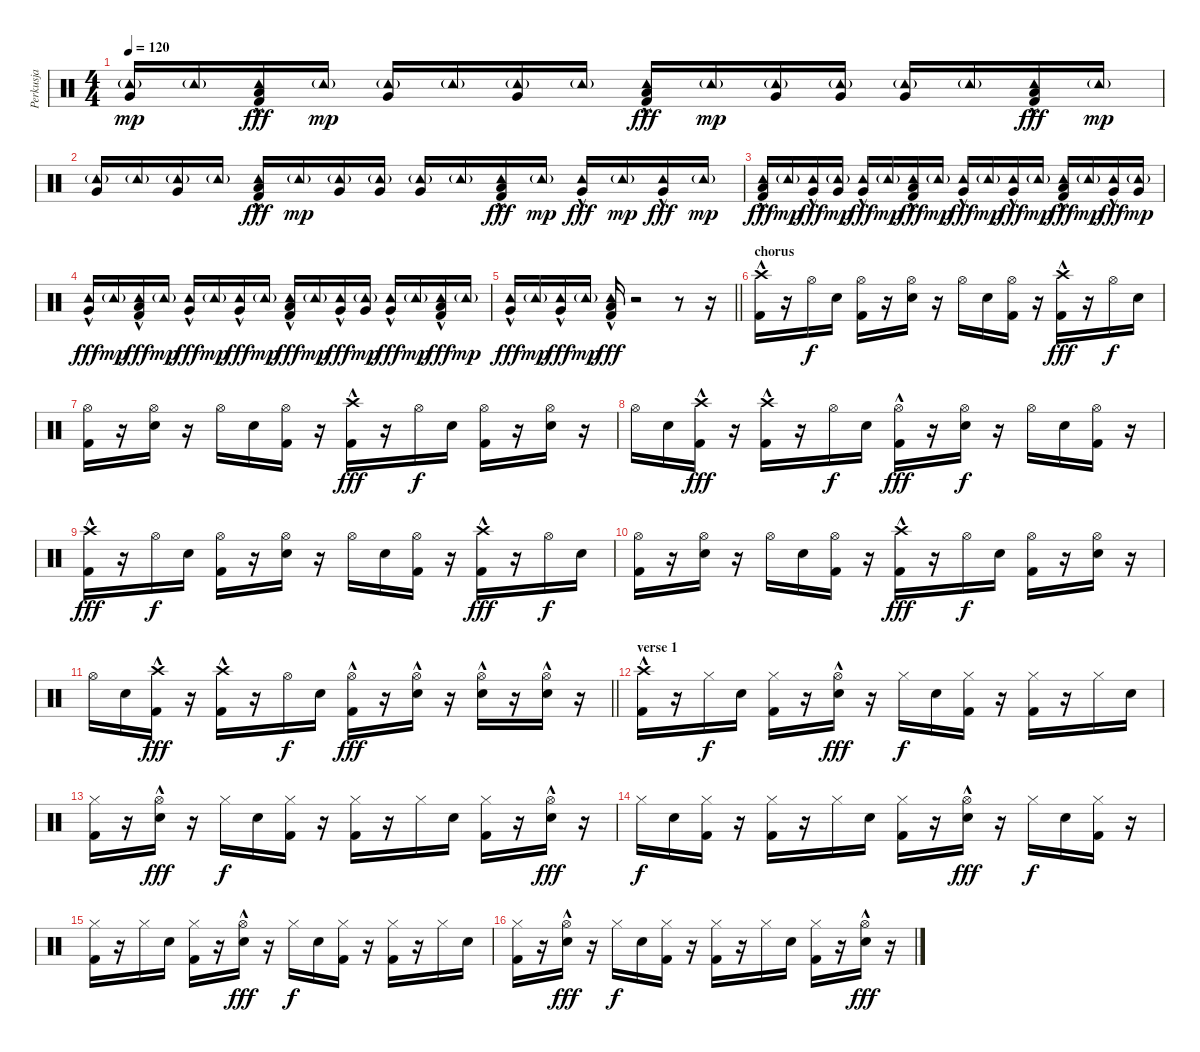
\track ("Perkusja" "Perkusja") {instrument percussion}
\staff {score}
\articulation defaults
\ts (4 4)
\tempo 120
\clef neutral
\ks c
("Tambourine (hit)"{g} "Very Low Tom (hit)").16{dy mp} "Tambourine (hit)"{g}.16 ("Tambourine (hit)"{hac} "Low Tom (hit)" "Kick (hit) 2").16{dy fff} "Tambourine (hit)"{g}.16{dy mp} ("Tambourine (hit)"{g} "Very Low Tom (hit)").16 "Tambourine (hit)"{g}.16 ("Tambourine (hit)"{g} "Very Low Tom (hit)").16 "Tambourine (hit)"{g}.16 ("Tambourine (hit)"{hac} "Low Tom (hit)" "Kick (hit) 2").16{dy fff} "Tambourine (hit)"{g}.16{dy mp} ("Tambourine (hit)"{g} "Very Low Tom (hit)").16 ("Tambourine (hit)"{g} "Very Low Tom (hit)").16 ("Tambourine (hit)"{g} "Very Low Tom (hit)").16 "Tambourine (hit)"{g}.16 ("Tambourine (hit)"{hac} "Low Tom (hit)" "Kick (hit) 2").16{dy fff} "Tambourine (hit)"{g}.16{dy mp} |
("Tambourine (hit)"{g} "Very Low Tom (hit)").16 "Tambourine (hit)"{g}.16 ("Tambourine (hit)"{g} "Very Low Tom (hit)").16 "Tambourine (hit)"{g}.16 ("Tambourine (hit)"{hac} "Low Tom (hit)" "Kick (hit) 2").16{dy fff} "Tambourine (hit)"{g}.16{dy mp} ("Tambourine (hit)"{g} "Very Low Tom (hit)").16 ("Tambourine (hit)"{g} "Very Low Tom (hit)").16 ("Tambourine (hit)"{g} "Very Low Tom (hit)").16 "Tambourine (hit)"{g}.16 ("Tambourine (hit)"{hac} "Low Tom (hit)" "Kick (hit) 2").16{dy fff} "Tambourine (hit)"{g}.16{dy mp} ("Tambourine (hit)"{hac} "Very Low Tom (hit)").16{dy fff} "Tambourine (hit)"{g}.16{dy mp} ("Tambourine (hit)"{hac} "Very Low Tom (hit)").16{dy fff} "Tambourine (hit)"{g}.16{dy mp} |
("Tambourine (hit)"{hac} "Low Tom (hit)" "Kick (hit) 2").16{dy fff} "Tambourine (hit)"{g}.16{dy mp} ("Tambourine (hit)"{hac} "Very Low Tom (hit)").16{dy fff} ("Tambourine (hit)"{g} "Very Low Tom (hit)").16{dy mp} ("Tambourine (hit)"{hac} "Very Low Tom (hit)").16{dy fff} "Tambourine (hit)"{g}.16{dy mp} ("Tambourine (hit)"{hac} "Low Tom (hit)" "Kick (hit) 2").16{dy fff} "Tambourine (hit)"{g}.16{dy mp} ("Tambourine (hit)"{hac} "Very Low Tom (hit)").16{dy fff} "Tambourine (hit)"{g}.16{dy mp} ("Tambourine (hit)"{hac} "Very Low Tom (hit)").16{dy fff} "Tambourine (hit)"{g}.16{dy mp} ("Tambourine (hit)"{hac} "Low Tom (hit)" "Kick (hit) 2").16{dy fff} "Tambourine (hit)"{g}.16{dy mp} ("Tambourine (hit)"{hac} "Very Low Tom (hit)").16{dy fff} ("Tambourine (hit)"{g} "Very Low Tom (hit)").16{dy mp} |
("Tambourine (hit)"{hac} "Very Low Tom (hit)").16{dy fff} "Tambourine (hit)"{g}.16{dy mp} ("Tambourine (hit)"{hac} "Low Tom (hit)" "Kick (hit) 2").16{dy fff} "Tambourine (hit)"{g}.16{dy mp} ("Tambourine (hit)"{hac} "Very Low Tom (hit)").16{dy fff} "Tambourine (hit)"{g}.16{dy mp} ("Tambourine (hit)"{hac} "Very Low Tom (hit)").16{dy fff} "Tambourine (hit)"{g}.16{dy mp} ("Tambourine (hit)"{hac} "Low Tom (hit)" "Kick (hit) 2").16{dy fff} "Tambourine (hit)"{g}.16{dy mp} ("Tambourine (hit)"{hac} "Very Low Tom (hit)").16{dy fff} ("Tambourine (hit)"{g} "Very Low Tom (hit)").16{dy mp} ("Tambourine (hit)"{hac} "Very Low Tom (hit)").16{dy fff} "Tambourine (hit)"{g}.16{dy mp} ("Tambourine (hit)"{hac} "Low Tom (hit)" "Kick (hit) 2").16{dy fff} "Tambourine (hit)"{g}.16{dy mp} |
\barLineRight lightlight
("Tambourine (hit)"{hac} "Very Low Tom (hit)").16{dy fff} "Tambourine (hit)"{g}.16{dy mp} ("Tambourine (hit)"{hac} "Very Low Tom (hit)").16{dy fff} "Tambourine (hit)"{g}.16{dy mp} ("Tambourine (hit)"{hac} "Low Tom (hit)" "Kick (hit) 2").16{dy fff} r.2 r.8 r.16 |
\section ("" "chorus")
("Crash high (hit)"{hac} "Kick (hit) 2").16 r.16 "Hi-Hat (open)".16{dy f} "Electric Snare (hit)".16 ("Hi-Hat (open)" "Kick (hit) 2").16 r.16 ("Hi-Hat (open)" "Electric Snare (hit)").16 r.16 "Hi-Hat (open)".16 "Electric Snare (hit)".16 ("Hi-Hat (open)" "Kick (hit) 2").16 r.16 ("Crash high (hit)"{hac} "Kick (hit) 2").16{dy fff} r.16 "Hi-Hat (open)".16{dy f} "Electric Snare (hit)".16 |
("Hi-Hat (open)" "Kick (hit) 2").16 r.16 ("Hi-Hat (open)" "Electric Snare (hit)").16 r.16 "Hi-Hat (open)".16 "Electric Snare (hit)".16 ("Hi-Hat (open)" "Kick (hit) 2").16 r.16 ("Crash high (hit)"{hac} "Kick (hit) 2").16{dy fff} r.16 "Hi-Hat (open)".16{dy f} "Electric Snare (hit)".16 ("Hi-Hat (open)" "Kick (hit) 2").16 r.16 ("Hi-Hat (open)" "Electric Snare (hit)").16 r.16 |
"Hi-Hat (open)".16 "Electric Snare (hit)".16 ("Crash high (hit)"{hac} "Kick (hit) 2").16{dy fff} r.16 ("Crash high (hit)"{hac} "Kick (hit) 2").16 r.16 "Hi-Hat (open)".16{dy f} "Electric Snare (hit)".16 ("Hi-Hat (open)"{hac} "Kick (hit) 2").16{dy fff} r.16 ("Hi-Hat (open)" "Electric Snare (hit)").16{dy f} r.16 "Hi-Hat (open)".16 "Electric Snare (hit)".16 ("Hi-Hat (open)" "Kick (hit) 2").16 r.16 |
("Crash high (hit)"{hac} "Kick (hit) 2").16{dy fff} r.16 "Hi-Hat (open)".16{dy f} "Electric Snare (hit)".16 ("Hi-Hat (open)" "Kick (hit) 2").16 r.16 ("Hi-Hat (open)" "Electric Snare (hit)").16 r.16 "Hi-Hat (open)".16 "Electric Snare (hit)".16 ("Hi-Hat (open)" "Kick (hit) 2").16 r.16 ("Crash high (hit)"{hac} "Kick (hit) 2").16{dy fff} r.16 "Hi-Hat (open)".16{dy f} "Electric Snare (hit)".16 |
("Hi-Hat (open)" "Kick (hit) 2").16 r.16 ("Hi-Hat (open)" "Electric Snare (hit)").16 r.16 "Hi-Hat (open)".16 "Electric Snare (hit)".16 ("Hi-Hat (open)" "Kick (hit) 2").16 r.16 ("Crash high (hit)"{hac} "Kick (hit) 2").16{dy fff} r.16 "Hi-Hat (open)".16{dy f} "Electric Snare (hit)".16 ("Hi-Hat (open)" "Kick (hit) 2").16 r.16 ("Hi-Hat (open)" "Electric Snare (hit)").16 r.16 |
\barLineRight lightlight "Hi-Hat (open)".16 "Electric Snare (hit)".16
("Crash high (hit)"{hac} "Kick (hit) 2").16{dy fff} r.16 ("Crash high (hit)"{hac} "Kick (hit) 2").16 r.16 "Hi-Hat (open)".16{dy f} "Electric Snare (hit)".16 ("Hi-Hat (open)"{hac} "Kick (hit) 2").16{dy fff} r.16 ("Hi-Hat (open)"{hac} "Electric Snare (hit)"{hac}).16 r.16 ("Hi-Hat (open)"{hac} "Electric Snare (hit)"{hac}).16 r.16 ("Hi-Hat (open)"{hac} "Electric Snare (hit)"{hac}).16 r.16 |
\section ("" "verse 1")
("Crash high (hit)"{hac} "Kick (hit) 2").16 r.16 "Hi-Hat (closed)".16{dy f} "Electric Snare (hit)".16 ("Hi-Hat (closed)" "Kick (hit) 2").16 r.16 ("Hi-Hat (open)"{hac} "Electric Snare (hit)"{hac}).16{dy fff} r.16 "Hi-Hat (closed)".16{dy f} "Electric Snare (hit)".16 ("Hi-Hat (closed)" "Kick (hit) 2").16 r.16 ("Hi-Hat (closed)" "Kick (hit) 2").16 r.16 "Hi-Hat (closed)".16 "Electric Snare (hit)".16 |
("Hi-Hat (closed)" "Kick (hit) 2").16 r.16 ("Hi-Hat (open)"{hac} "Electric Snare (hit)"{hac}).16{dy fff} r.16 "Hi-Hat (closed)".16{dy f} "Electric Snare (hit)".16 ("Hi-Hat (closed)" "Kick (hit) 2").16 r.16 ("Hi-Hat (closed)" "Kick (hit) 2").16 r.16 "Hi-Hat (closed)".16 "Electric Snare (hit)".16 ("Hi-Hat (closed)" "Kick (hit) 2").16 r.16 ("Hi-Hat (open)"{hac} "Electric Snare (hit)"{hac}).16{dy fff} r.16 |
"Hi-Hat (closed)".16{dy f} "Electric Snare (hit)".16 ("Hi-Hat (closed)" "Kick (hit) 2").16 r.16 ("Hi-Hat (closed)" "Kick (hit) 2").16 r.16 "Hi-Hat (closed)".16 "Electric Snare (hit)".16 ("Hi-Hat (closed)" "Kick (hit) 2").16 r.16 ("Hi-Hat (open)"{hac} "Electric Snare (hit)"{hac}).16{dy fff} r.16 "Hi-Hat (closed)".16{dy f} "Electric Snare (hit)".16 ("Hi-Hat (closed)" "Kick (hit) 2").16 r.16 |
("Hi-Hat (closed)" "Kick (hit) 2").16 r.16 "Hi-Hat (closed)".16 "Electric Snare (hit)".16 ("Hi-Hat (closed)" "Kick (hit) 2").16 r.16 ("Hi-Hat (open)"{hac} "Electric Snare (hit)"{hac}).16{dy fff} r.16 "Hi-Hat (closed)".16{dy f} "Electric Snare (hit)".16 ("Hi-Hat (closed)" "Kick (hit) 2").16 r.16 ("Hi-Hat (closed)" "Kick (hit) 2").16 r.16 "Hi-Hat (closed)".16 "Electric Snare (hit)".16 |
("Hi-Hat (closed)" "Kick (hit) 2").16 r.16 ("Hi-Hat (open)"{hac} "Electric Snare (hit)"{hac}).16{dy fff} r.16 "Hi-Hat (closed)".16{dy f} "Electric Snare (hit)".16 ("Hi-Hat (closed)" "Kick (hit) 2").16 r.16 ("Hi-Hat (closed)" "Kick (hit) 2").16 r.16 "Hi-Hat (closed)".16 "Electric Snare (hit)".16 ("Hi-Hat (closed)" "Kick (hit) 2").16 r.16 ("Hi-Hat (open)"{hac} "Electric Snare (hit)"{hac}).16{dy fff} r.16
